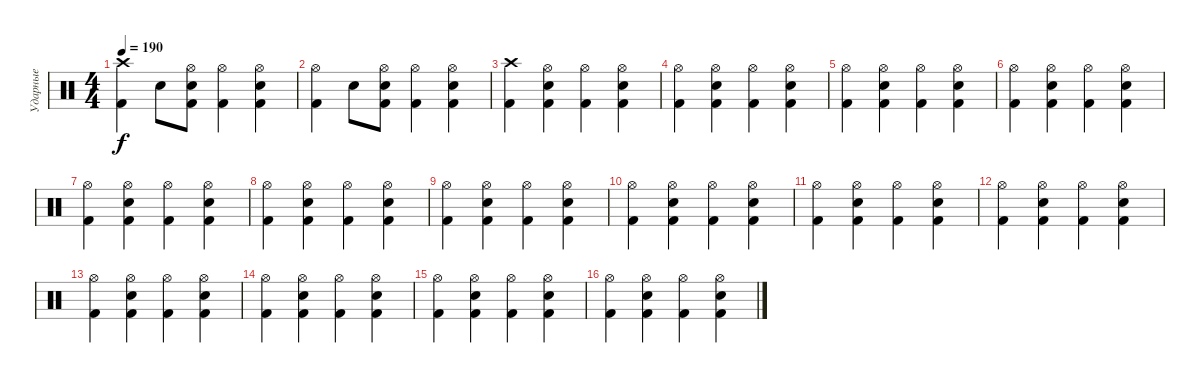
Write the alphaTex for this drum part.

\track ("Ударные" "Ударные") {instrument percussion}
\staff
\articulation defaults
\ts (4 4)
\tempo 190
\clef neutral
\ks c
("Kick (hit) 2" "Crash high (hit)").4{dy f} "Snare (hit) 2".8 ("Kick (hit) 2" "Snare (hit) 2" "Hi-Hat (open)").8 ("Kick (hit) 2" "Hi-Hat (open)").4 ("Kick (hit) 2" "Snare (hit) 2" "Hi-Hat (open)").4 |
("Kick (hit) 2" "Hi-Hat (open)").4 "Snare (hit) 2".8 ("Kick (hit) 2" "Snare (hit) 2" "Hi-Hat (open)").8 ("Kick (hit) 2" "Hi-Hat (open)").4 ("Kick (hit) 2" "Snare (hit) 2" "Hi-Hat (open)").4 |
("Kick (hit) 2" "Crash high (hit)").4 ("Kick (hit) 2" "Snare (hit) 2" "Hi-Hat (open)").4 ("Kick (hit) 2" "Hi-Hat (open)").4 ("Kick (hit) 2" "Snare (hit) 2" "Hi-Hat (open)").4 |
("Kick (hit) 2" "Hi-Hat (open)").4 ("Kick (hit) 2" "Snare (hit) 2" "Hi-Hat (open)").4 ("Kick (hit) 2" "Hi-Hat (open)").4 ("Kick (hit) 2" "Snare (hit) 2" "Hi-Hat (open)").4 |
("Kick (hit) 2" "Hi-Hat (open)").4 ("Kick (hit) 2" "Snare (hit) 2" "Hi-Hat (open)").4 ("Kick (hit) 2" "Hi-Hat (open)").4 ("Kick (hit) 2" "Snare (hit) 2" "Hi-Hat (open)").4 |
("Kick (hit) 2" "Hi-Hat (open)").4 ("Kick (hit) 2" "Snare (hit) 2" "Hi-Hat (open)").4 ("Kick (hit) 2" "Hi-Hat (open)").4 ("Kick (hit) 2" "Snare (hit) 2" "Hi-Hat (open)").4 |
("Kick (hit) 2" "Hi-Hat (open)").4 ("Kick (hit) 2" "Snare (hit) 2" "Hi-Hat (open)").4 ("Kick (hit) 2" "Hi-Hat (open)").4 ("Kick (hit) 2" "Snare (hit) 2" "Hi-Hat (open)").4 |
("Kick (hit) 2" "Hi-Hat (open)").4 ("Kick (hit) 2" "Snare (hit) 2" "Hi-Hat (open)").4 ("Kick (hit) 2" "Hi-Hat (open)").4 ("Kick (hit) 2" "Snare (hit) 2" "Hi-Hat (open)").4 |
("Kick (hit) 2" "Hi-Hat (open)").4 ("Kick (hit) 2" "Snare (hit) 2" "Hi-Hat (open)").4 ("Kick (hit) 2" "Hi-Hat (open)").4 ("Kick (hit) 2" "Snare (hit) 2" "Hi-Hat (open)").4 |
("Kick (hit) 2" "Hi-Hat (open)").4 ("Kick (hit) 2" "Snare (hit) 2" "Hi-Hat (open)").4 ("Kick (hit) 2" "Hi-Hat (open)").4 ("Kick (hit) 2" "Snare (hit) 2" "Hi-Hat (open)").4 |
("Kick (hit) 2" "Hi-Hat (open)").4 ("Kick (hit) 2" "Snare (hit) 2" "Hi-Hat (open)").4 ("Kick (hit) 2" "Hi-Hat (open)").4 ("Kick (hit) 2" "Snare (hit) 2" "Hi-Hat (open)").4 |
("Kick (hit) 2" "Hi-Hat (open)").4 ("Kick (hit) 2" "Snare (hit) 2" "Hi-Hat (open)").4 ("Kick (hit) 2" "Hi-Hat (open)").4 ("Kick (hit) 2" "Snare (hit) 2" "Hi-Hat (open)").4 |
("Kick (hit) 2" "Hi-Hat (open)").4 ("Kick (hit) 2" "Snare (hit) 2" "Hi-Hat (open)").4 ("Kick (hit) 2" "Hi-Hat (open)").4 ("Kick (hit) 2" "Snare (hit) 2" "Hi-Hat (open)").4 |
("Kick (hit) 2" "Hi-Hat (open)").4 ("Kick (hit) 2" "Snare (hit) 2" "Hi-Hat (open)").4 ("Kick (hit) 2" "Hi-Hat (open)").4 ("Kick (hit) 2" "Snare (hit) 2" "Hi-Hat (open)").4 |
("Kick (hit) 2" "Hi-Hat (open)").4 ("Kick (hit) 2" "Snare (hit) 2" "Hi-Hat (open)").4 ("Kick (hit) 2" "Hi-Hat (open)").4 ("Kick (hit) 2" "Snare (hit) 2" "Hi-Hat (open)").4 |
("Kick (hit) 2" "Hi-Hat (open)").4 ("Kick (hit) 2" "Snare (hit) 2" "Hi-Hat (open)").4 ("Kick (hit) 2" "Hi-Hat (open)").4 ("Kick (hit) 2" "Snare (hit) 2" "Hi-Hat (open)").4
